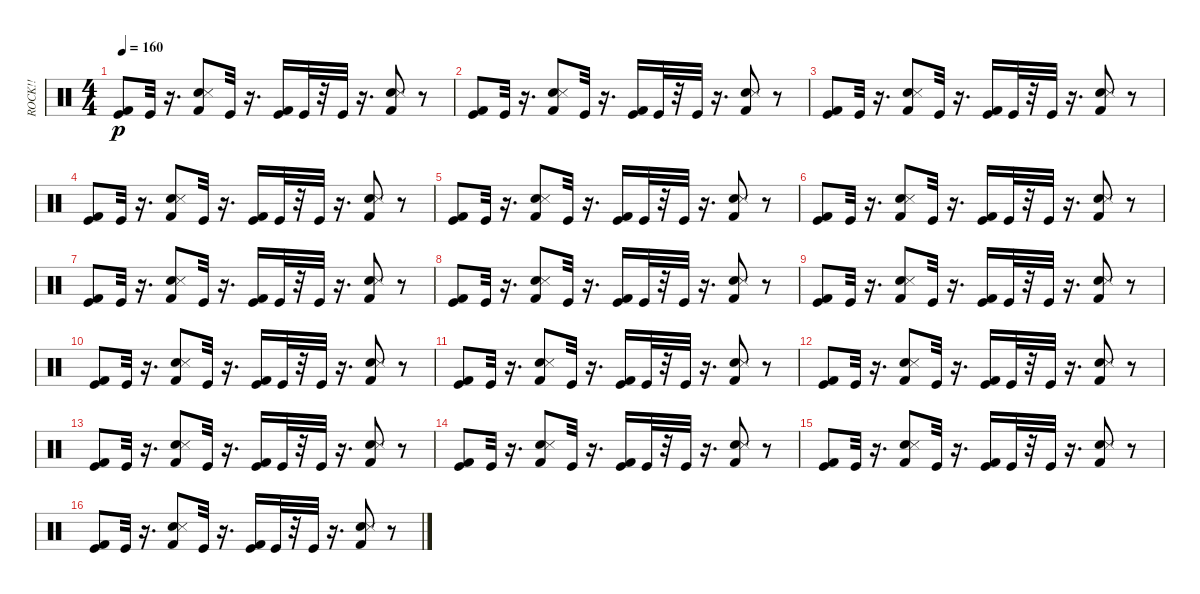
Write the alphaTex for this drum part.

\track ("ROCK!!" "ROCK!!") {instrument percussion}
\staff {score}
\articulation defaults
\ts (4 4)
\tempo 160
\clef neutral
\ks c
("Kick (hit) 2" "Kick (hit)").8{dy p} "Kick (hit)".32 r.16{d} ("Kick (hit) 2" "Electric Snare (hit)" "Snare (side stick) 3").8 "Kick (hit)".32 r.16{d} ("Kick (hit) 2" "Kick (hit)").16 "Kick (hit)".32 r.32 "Kick (hit)".32 r.16{d} ("Kick (hit) 2" "Electric Snare (hit)" "Snare (side stick) 3").8 r.8 |
("Kick (hit) 2" "Kick (hit)").8 "Kick (hit)".32 r.16{d} ("Kick (hit) 2" "Electric Snare (hit)" "Snare (side stick) 3").8 "Kick (hit)".32 r.16{d} ("Kick (hit) 2" "Kick (hit)").16 "Kick (hit)".32 r.32 "Kick (hit)".32 r.16{d} ("Kick (hit) 2" "Electric Snare (hit)" "Snare (side stick) 3").8 r.8 |
("Kick (hit) 2" "Kick (hit)").8 "Kick (hit)".32 r.16{d} ("Kick (hit) 2" "Electric Snare (hit)" "Snare (side stick) 3").8 "Kick (hit)".32 r.16{d} ("Kick (hit) 2" "Kick (hit)").16 "Kick (hit)".32 r.32 "Kick (hit)".32 r.16{d} ("Kick (hit) 2" "Electric Snare (hit)" "Snare (side stick) 3").8 r.8 |
("Kick (hit) 2" "Kick (hit)").8 "Kick (hit)".32 r.16{d} ("Kick (hit) 2" "Electric Snare (hit)" "Snare (side stick) 3").8 "Kick (hit)".32 r.16{d} ("Kick (hit) 2" "Kick (hit)").16 "Kick (hit)".32 r.32 "Kick (hit)".32 r.16{d} ("Kick (hit) 2" "Electric Snare (hit)" "Snare (side stick) 3").8 r.8 |
("Kick (hit) 2" "Kick (hit)").8 "Kick (hit)".32 r.16{d} ("Kick (hit) 2" "Electric Snare (hit)" "Snare (side stick) 3").8 "Kick (hit)".32 r.16{d} ("Kick (hit) 2" "Kick (hit)").16 "Kick (hit)".32 r.32 "Kick (hit)".32 r.16{d} ("Kick (hit) 2" "Electric Snare (hit)" "Snare (side stick) 3").8 r.8 |
("Kick (hit) 2" "Kick (hit)").8 "Kick (hit)".32 r.16{d} ("Kick (hit) 2" "Electric Snare (hit)" "Snare (side stick) 3").8 "Kick (hit)".32 r.16{d} ("Kick (hit) 2" "Kick (hit)").16 "Kick (hit)".32 r.32 "Kick (hit)".32 r.16{d} ("Kick (hit) 2" "Electric Snare (hit)" "Snare (side stick) 3").8 r.8 |
("Kick (hit) 2" "Kick (hit)").8 "Kick (hit)".32 r.16{d} ("Kick (hit) 2" "Electric Snare (hit)" "Snare (side stick) 3").8 "Kick (hit)".32 r.16{d} ("Kick (hit) 2" "Kick (hit)").16 "Kick (hit)".32 r.32 "Kick (hit)".32 r.16{d} ("Kick (hit) 2" "Electric Snare (hit)" "Snare (side stick) 3").8 r.8 |
("Kick (hit) 2" "Kick (hit)").8 "Kick (hit)".32 r.16{d} ("Kick (hit) 2" "Electric Snare (hit)" "Snare (side stick) 3").8 "Kick (hit)".32 r.16{d} ("Kick (hit) 2" "Kick (hit)").16 "Kick (hit)".32 r.32 "Kick (hit)".32 r.16{d} ("Kick (hit) 2" "Electric Snare (hit)" "Snare (side stick) 3").8 r.8 |
("Kick (hit) 2" "Kick (hit)").8 "Kick (hit)".32 r.16{d} ("Kick (hit) 2" "Electric Snare (hit)" "Snare (side stick) 3").8 "Kick (hit)".32 r.16{d} ("Kick (hit) 2" "Kick (hit)").16 "Kick (hit)".32 r.32 "Kick (hit)".32 r.16{d} ("Kick (hit) 2" "Electric Snare (hit)" "Snare (side stick) 3").8 r.8 |
("Kick (hit) 2" "Kick (hit)").8 "Kick (hit)".32 r.16{d} ("Kick (hit) 2" "Electric Snare (hit)" "Snare (side stick) 3").8 "Kick (hit)".32 r.16{d} ("Kick (hit) 2" "Kick (hit)").16 "Kick (hit)".32 r.32 "Kick (hit)".32 r.16{d} ("Kick (hit) 2" "Electric Snare (hit)" "Snare (side stick) 3").8 r.8 |
("Kick (hit) 2" "Kick (hit)").8 "Kick (hit)".32 r.16{d} ("Kick (hit) 2" "Electric Snare (hit)" "Snare (side stick) 3").8 "Kick (hit)".32 r.16{d} ("Kick (hit) 2" "Kick (hit)").16 "Kick (hit)".32 r.32 "Kick (hit)".32 r.16{d} ("Kick (hit) 2" "Electric Snare (hit)" "Snare (side stick) 3").8 r.8 |
("Kick (hit) 2" "Kick (hit)").8 "Kick (hit)".32 r.16{d} ("Kick (hit) 2" "Electric Snare (hit)" "Snare (side stick) 3").8 "Kick (hit)".32 r.16{d} ("Kick (hit) 2" "Kick (hit)").16 "Kick (hit)".32 r.32 "Kick (hit)".32 r.16{d} ("Kick (hit) 2" "Electric Snare (hit)" "Snare (side stick) 3").8 r.8 |
("Kick (hit) 2" "Kick (hit)").8 "Kick (hit)".32 r.16{d} ("Kick (hit) 2" "Electric Snare (hit)" "Snare (side stick) 3").8 "Kick (hit)".32 r.16{d} ("Kick (hit) 2" "Kick (hit)").16 "Kick (hit)".32 r.32 "Kick (hit)".32 r.16{d} ("Kick (hit) 2" "Electric Snare (hit)" "Snare (side stick) 3").8 r.8 |
("Kick (hit) 2" "Kick (hit)").8 "Kick (hit)".32 r.16{d} ("Kick (hit) 2" "Electric Snare (hit)" "Snare (side stick) 3").8 "Kick (hit)".32 r.16{d} ("Kick (hit) 2" "Kick (hit)").16 "Kick (hit)".32 r.32 "Kick (hit)".32 r.16{d} ("Kick (hit) 2" "Electric Snare (hit)" "Snare (side stick) 3").8 r.8 |
("Kick (hit) 2" "Kick (hit)").8 "Kick (hit)".32 r.16{d} ("Kick (hit) 2" "Electric Snare (hit)" "Snare (side stick) 3").8 "Kick (hit)".32 r.16{d} ("Kick (hit) 2" "Kick (hit)").16 "Kick (hit)".32 r.32 "Kick (hit)".32 r.16{d} ("Kick (hit) 2" "Electric Snare (hit)" "Snare (side stick) 3").8 r.8 |
("Kick (hit) 2" "Kick (hit)").8 "Kick (hit)".32 r.16{d} ("Kick (hit) 2" "Electric Snare (hit)" "Snare (side stick) 3").8 "Kick (hit)".32 r.16{d} ("Kick (hit) 2" "Kick (hit)").16 "Kick (hit)".32 r.32 "Kick (hit)".32 r.16{d} ("Kick (hit) 2" "Electric Snare (hit)" "Snare (side stick) 3").8 r.8
